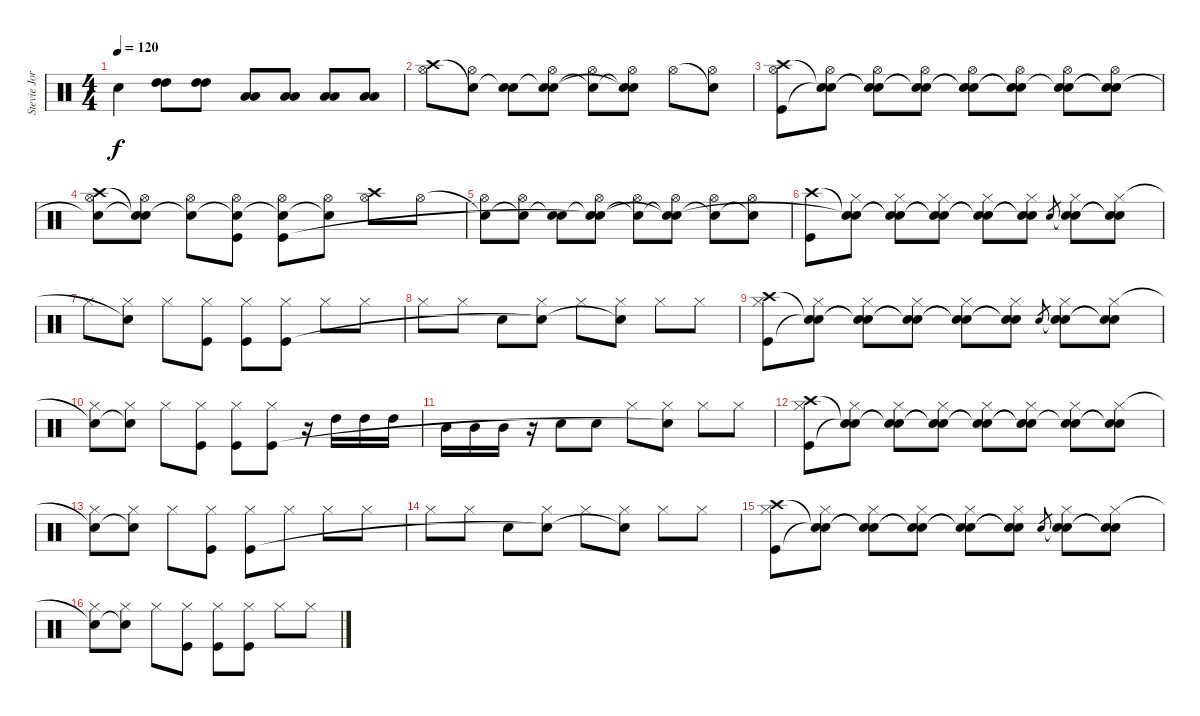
\track ("Stevie Jordan" "Stevie Jor") {instrument percussion}
\staff {score}
\articulation defaults
\ts (4 4)
\tempo 120
\clef neutral
\ks c "Snare (hit) 2".4{dy f}
("High Tom (hit)" "High Tom (hit)").8 ("High Tom (hit)" "High Tom (hit)").8 ("Low Tom (hit)" "Low Tom (hit)").8 ("Low Tom (hit)" "Low Tom (hit)").8 ("Low Floor Tom (hit)" "Low Floor Tom (hit)").8 ("Low Floor Tom (hit)" "Low Floor Tom (hit)").8 |
("Crash high (hit)" "Hi-Hat (open)").8 ("Snare (hit)"{t} "Hi-Hat (open)").8 ("Snare (hit)"{t} "Snare (hit) 2").8 ("Snare (hit)"{t} "Hi-Hat (open)" "Snare (hit)"{t}).8 ("Snare (hit)"{t} "Hi-Hat (open)").8 ("Snare (hit)"{t} "Hi-Hat (open)" "Snare (hit)"{t}).8 "Hi-Hat (open)".8 ("Snare (hit)"{t} "Hi-Hat (open)").8 |
("Crash high (hit)" "Hi-Hat (open)" "Kick (hit)").8 ("Snare (hit)"{t} "Hi-Hat (open)" "Snare (hit)"{t}).8 ("Snare (hit)"{t} "Hi-Hat (open)" "Snare (hit)"{t}).8 ("Snare (hit)"{t} "Hi-Hat (open)" "Snare (hit)"{t}).8 ("Snare (hit)"{t} "Hi-Hat (open)" "Snare (hit)"{t}).8 ("Snare (hit)"{t} "Hi-Hat (open)" "Snare (hit)"{t}).8 ("Snare (hit)"{t} "Hi-Hat (open)" "Snare (hit) 2").8 ("Snare (hit)"{t} "Hi-Hat (open)" "Snare (hit)"{t}).8 |
("Crash high (hit)" "Hi-Hat (open)" "Snare (hit)"{t}).8 ("Snare (hit)"{t} "Hi-Hat (open)" "Snare (hit)"{t}).8 ("Snare (hit)"{t} "Hi-Hat (open)").8 ("Snare (hit)"{t} "Hi-Hat (open)" "Kick (hit)").8 ("Snare (hit)"{t} "Hi-Hat (open)" "Kick (hit)").8 ("Snare (hit)"{t} "Hi-Hat (open)").8 ("Crash high (hit)" "Hi-Hat (open)").8 "Hi-Hat (open)".8 |
("Snare (hit)"{t} "Hi-Hat (open)").8 ("Snare (hit)"{t} "Hi-Hat (open)").8 ("Snare (hit)"{t} "Snare (hit) 2").8 ("Snare (hit)"{t} "Hi-Hat (open)" "Snare (hit)"{t}).8 ("Snare (hit)"{t} "Hi-Hat (open)").8 ("Snare (hit)"{t} "Hi-Hat (open)" "Snare (hit)"{t}).8 ("Snare (hit)"{t} "Hi-Hat (open)").8 ("Snare (hit)"{t} "Hi-Hat (open)").8 |
("Crash high (hit)" "Kick (hit)").8 ("Snare (hit)"{t} "Hi-Hat (closed)" "Snare (hit)"{t}).8 ("Snare (hit)"{t} "Hi-Hat (closed)" "Snare (hit)"{t}).8 ("Snare (hit)"{t} "Hi-Hat (closed)" "Snare (hit)"{t}).8 ("Snare (hit)"{t} "Hi-Hat (closed)" "Snare (hit)"{t}).8 ("Snare (hit)"{t} "Hi-Hat (closed)" "Snare (hit)"{t}).8 "Snare (hit) 2".8{gr} ("Snare (hit)"{t} "Hi-Hat (closed)" "Snare (hit) 2").8 ("Snare (hit)"{t} "Hi-Hat (closed)" "Snare (hit)"{t}).8 |
"Hi-Hat (closed)".8 ("Hi-Hat (closed)" "Snare (hit)"{t}).8 "Hi-Hat (closed)".8 ("Hi-Hat (closed)" "Kick (hit)").8 ("Hi-Hat (closed)" "Kick (hit)").8 ("Hi-Hat (closed)" "Kick (hit)").8 "Hi-Hat (closed)".8 "Hi-Hat (closed)".8 |
"Hi-Hat (closed)".8 "Hi-Hat (closed)".8 "Snare (hit) 2".8 ("Hi-Hat (closed)" "Snare (hit)"{t}).8 "Hi-Hat (closed)".8 ("Hi-Hat (closed)" "Snare (hit)"{t}).8 "Hi-Hat (closed)".8 "Hi-Hat (closed)".8 |
("Crash high (hit)" "Hi-Hat (closed)" "Kick (hit)").8 ("Snare (hit)"{t} "Hi-Hat (closed)" "Snare (hit)"{t}).8 ("Snare (hit)"{t} "Hi-Hat (closed)" "Snare (hit)"{t}).8 ("Snare (hit)"{t} "Hi-Hat (closed)" "Snare (hit)"{t}).8 ("Snare (hit)"{t} "Hi-Hat (closed)" "Snare (hit)"{t}).8 ("Snare (hit)"{t} "Hi-Hat (closed)" "Snare (hit)"{t}).8 "Snare (hit) 2".8{gr} ("Snare (hit)"{t} "Hi-Hat (closed)" "Snare (hit) 2").8 ("Snare (hit)"{t} "Hi-Hat (closed)" "Snare (hit)"{t}).8 |
("Hi-Hat (closed)" "Snare (hit)"{t}).8 ("Hi-Hat (closed)" "Snare (hit)"{t}).8 "Hi-Hat (closed)".8 ("Hi-Hat (closed)" "Kick (hit)").8 ("Hi-Hat (closed)" "Kick (hit)").8 ("Hi-Hat (closed)" "Kick (hit)").8 r.16 "High Tom (hit)".16 "High Tom (hit)".16 "High Tom (hit)".16 |
"Mid Tom (hit)".16 "Mid Tom (hit)".16 "Mid Tom (hit)".16 r.16 "Snare (hit) 2".8 "Snare (hit) 2".8 "Hi-Hat (closed)".8 ("Hi-Hat (closed)" "Snare (hit)"{t}).8 "Hi-Hat (closed)".8 "Hi-Hat (closed)".8 |
("Crash high (hit)" "Hi-Hat (closed)" "Kick (hit)").8 ("Snare (hit)"{t} "Hi-Hat (closed)" "Snare (hit)"{t}).8 ("Snare (hit)"{t} "Hi-Hat (closed)" "Snare (hit)"{t}).8 ("Snare (hit)"{t} "Hi-Hat (closed)" "Snare (hit)"{t}).8 ("Snare (hit)"{t} "Hi-Hat (closed)" "Snare (hit)"{t}).8 ("Snare (hit)"{t} "Hi-Hat (closed)" "Snare (hit)"{t}).8 ("Snare (hit)"{t} "Hi-Hat (closed)" "Snare (hit) 2").8 ("Snare (hit)"{t} "Hi-Hat (closed)" "Snare (hit)"{t}).8 |
("Hi-Hat (closed)" "Snare (hit)"{t}).8 ("Hi-Hat (closed)" "Snare (hit)"{t}).8 "Hi-Hat (closed)".8 ("Hi-Hat (closed)" "Kick (hit)").8 ("Hi-Hat (closed)" "Kick (hit)").8 "Hi-Hat (closed)".8 "Hi-Hat (closed)".8 "Hi-Hat (closed)".8 |
"Hi-Hat (closed)".8 "Hi-Hat (closed)".8 "Snare (hit) 2".8 ("Hi-Hat (closed)" "Snare (hit)"{t}).8 "Hi-Hat (closed)".8 ("Hi-Hat (closed)" "Snare (hit)"{t}).8 "Hi-Hat (closed)".8 "Hi-Hat (closed)".8 |
("Crash high (hit)" "Hi-Hat (closed)" "Kick (hit)").8 ("Snare (hit)"{t} "Hi-Hat (closed)" "Snare (hit)"{t}).8 ("Snare (hit)"{t} "Hi-Hat (closed)" "Snare (hit)"{t}).8 ("Snare (hit)"{t} "Hi-Hat (closed)" "Snare (hit)"{t}).8 ("Snare (hit)"{t} "Hi-Hat (closed)" "Snare (hit)"{t}).8 ("Snare (hit)"{t} "Hi-Hat (closed)" "Snare (hit)"{t}).8 "Snare (hit) 2".8{gr} ("Snare (hit)"{t} "Hi-Hat (closed)" "Snare (hit) 2").8 ("Snare (hit)"{t} "Hi-Hat (closed)" "Snare (hit)"{t}).8 |
("Hi-Hat (closed)" "Snare (hit)"{t}).8 ("Hi-Hat (closed)" "Snare (hit)"{t}).8 "Hi-Hat (closed)".8 ("Hi-Hat (closed)" "Kick (hit)").8 ("Hi-Hat (closed)" "Kick (hit)").8 ("Hi-Hat (closed)" "Kick (hit)").8 "Hi-Hat (closed)".8 "Hi-Hat (closed)".8
